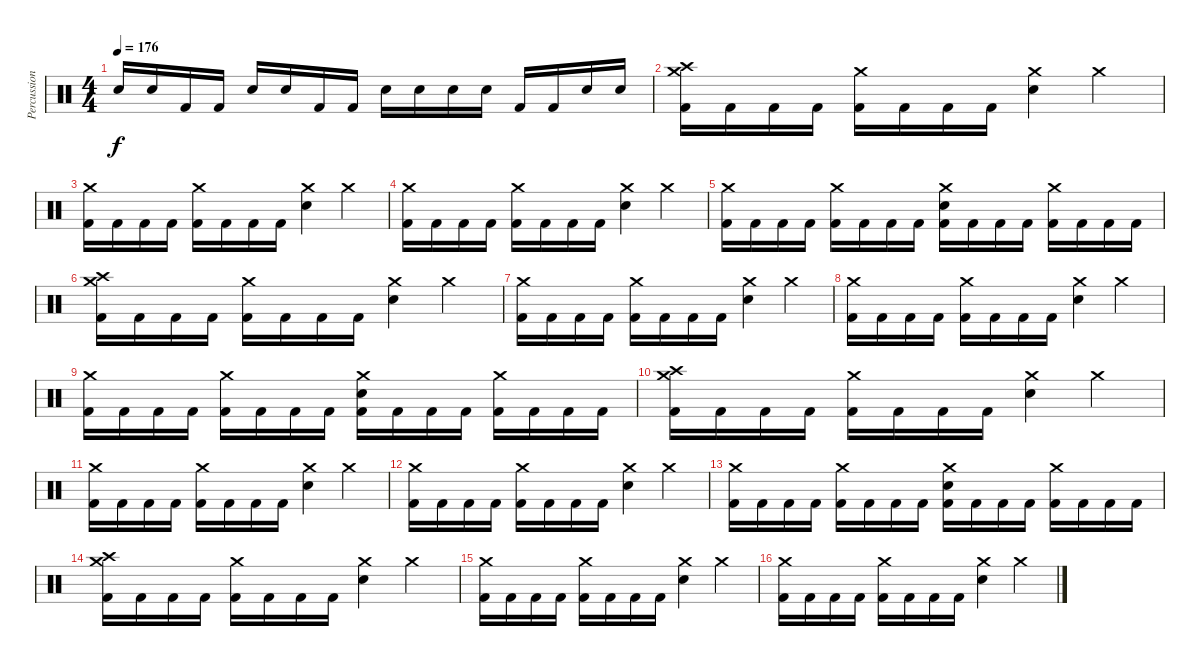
\track ("Percussion" "Percussion") {instrument percussion}
\staff {score}
\articulation defaults
\ts (4 4)
\tempo 176
\clef neutral
\ks c "Snare (hit) 2".16{dy f} "Snare (hit) 2".16 "Kick (hit) 2".16 "Kick (hit) 2".16 "Snare (hit) 2".16 "Snare (hit) 2".16 "Kick (hit) 2".16 "Kick (hit) 2".16 "Snare (hit) 2".16 "Snare (hit) 2".16 "Snare (hit) 2".16 "Snare (hit) 2".16 "Kick (hit) 2".16 "Kick (hit) 2".16 "Snare (hit) 2".16 "Snare (hit) 2".16
|
("Crash high (hit)" "Crash medium (hit)" "Kick (hit) 2").16 "Kick (hit) 2".16 "Kick (hit) 2".16 "Kick (hit) 2".16 ("Crash medium (hit)" "Kick (hit) 2").16 "Kick (hit) 2".16 "Kick (hit) 2".16 "Kick (hit) 2".16 ("Crash medium (hit)" "Snare (hit) 2").4 "Crash medium (hit)".4 |
("Crash medium (hit)" "Kick (hit) 2").16 "Kick (hit) 2".16 "Kick (hit) 2".16 "Kick (hit) 2".16 ("Crash medium (hit)" "Kick (hit) 2").16 "Kick (hit) 2".16 "Kick (hit) 2".16 "Kick (hit) 2".16 ("Crash medium (hit)" "Snare (hit) 2").4 "Crash medium (hit)".4 |
("Crash medium (hit)" "Kick (hit) 2").16 "Kick (hit) 2".16 "Kick (hit) 2".16 "Kick (hit) 2".16 ("Crash medium (hit)" "Kick (hit) 2").16 "Kick (hit) 2".16 "Kick (hit) 2".16 "Kick (hit) 2".16 ("Crash medium (hit)" "Snare (hit) 2").4 "Crash medium (hit)".4 |
("Crash medium (hit)" "Kick (hit) 2").16 "Kick (hit) 2".16 "Kick (hit) 2".16 "Kick (hit) 2".16 ("Crash medium (hit)" "Kick (hit) 2").16 "Kick (hit) 2".16 "Kick (hit) 2".16 "Kick (hit) 2".16 ("Crash medium (hit)" "Snare (hit) 2" "Kick (hit) 2").16 "Kick (hit) 2".16 "Kick (hit) 2".16 "Kick (hit) 2".16 ("Crash medium (hit)" "Kick (hit) 2").16 "Kick (hit) 2".16 "Kick (hit) 2".16 "Kick (hit) 2".16 |
("Crash high (hit)" "Crash medium (hit)" "Kick (hit) 2").16 "Kick (hit) 2".16 "Kick (hit) 2".16 "Kick (hit) 2".16 ("Crash medium (hit)" "Kick (hit) 2").16 "Kick (hit) 2".16 "Kick (hit) 2".16 "Kick (hit) 2".16 ("Crash medium (hit)" "Snare (hit) 2").4 "Crash medium (hit)".4 |
("Crash medium (hit)" "Kick (hit) 2").16 "Kick (hit) 2".16 "Kick (hit) 2".16 "Kick (hit) 2".16 ("Crash medium (hit)" "Kick (hit) 2").16 "Kick (hit) 2".16 "Kick (hit) 2".16 "Kick (hit) 2".16 ("Crash medium (hit)" "Snare (hit) 2").4 "Crash medium (hit)".4 |
("Crash medium (hit)" "Kick (hit) 2").16 "Kick (hit) 2".16 "Kick (hit) 2".16 "Kick (hit) 2".16 ("Crash medium (hit)" "Kick (hit) 2").16 "Kick (hit) 2".16 "Kick (hit) 2".16 "Kick (hit) 2".16 ("Crash medium (hit)" "Snare (hit) 2").4 "Crash medium (hit)".4 |
("Crash medium (hit)" "Kick (hit) 2").16 "Kick (hit) 2".16 "Kick (hit) 2".16 "Kick (hit) 2".16 ("Crash medium (hit)" "Kick (hit) 2").16 "Kick (hit) 2".16 "Kick (hit) 2".16 "Kick (hit) 2".16 ("Crash medium (hit)" "Snare (hit) 2" "Kick (hit) 2").16 "Kick (hit) 2".16 "Kick (hit) 2".16 "Kick (hit) 2".16 ("Crash medium (hit)" "Kick (hit) 2").16 "Kick (hit) 2".16 "Kick (hit) 2".16 "Kick (hit) 2".16 |
("Crash high (hit)" "Crash medium (hit)" "Kick (hit) 2").16 "Kick (hit) 2".16 "Kick (hit) 2".16 "Kick (hit) 2".16 ("Crash medium (hit)" "Kick (hit) 2").16 "Kick (hit) 2".16 "Kick (hit) 2".16 "Kick (hit) 2".16 ("Crash medium (hit)" "Snare (hit) 2").4 "Crash medium (hit)".4 |
("Crash medium (hit)" "Kick (hit) 2").16 "Kick (hit) 2".16 "Kick (hit) 2".16 "Kick (hit) 2".16 ("Crash medium (hit)" "Kick (hit) 2").16 "Kick (hit) 2".16 "Kick (hit) 2".16 "Kick (hit) 2".16 ("Crash medium (hit)" "Snare (hit) 2").4 "Crash medium (hit)".4 |
("Crash medium (hit)" "Kick (hit) 2").16 "Kick (hit) 2".16 "Kick (hit) 2".16 "Kick (hit) 2".16 ("Crash medium (hit)" "Kick (hit) 2").16 "Kick (hit) 2".16 "Kick (hit) 2".16 "Kick (hit) 2".16 ("Crash medium (hit)" "Snare (hit) 2").4 "Crash medium (hit)".4 |
("Crash medium (hit)" "Kick (hit) 2").16 "Kick (hit) 2".16 "Kick (hit) 2".16 "Kick (hit) 2".16 ("Crash medium (hit)" "Kick (hit) 2").16 "Kick (hit) 2".16 "Kick (hit) 2".16 "Kick (hit) 2".16 ("Crash medium (hit)" "Snare (hit) 2" "Kick (hit) 2").16 "Kick (hit) 2".16 "Kick (hit) 2".16 "Kick (hit) 2".16 ("Crash medium (hit)" "Kick (hit) 2").16 "Kick (hit) 2".16 "Kick (hit) 2".16 "Kick (hit) 2".16 |
("Crash high (hit)" "Crash medium (hit)" "Kick (hit) 2").16 "Kick (hit) 2".16 "Kick (hit) 2".16 "Kick (hit) 2".16 ("Crash medium (hit)" "Kick (hit) 2").16 "Kick (hit) 2".16 "Kick (hit) 2".16 "Kick (hit) 2".16 ("Crash medium (hit)" "Snare (hit) 2").4 "Crash medium (hit)".4 |
("Crash medium (hit)" "Kick (hit) 2").16 "Kick (hit) 2".16 "Kick (hit) 2".16 "Kick (hit) 2".16 ("Crash medium (hit)" "Kick (hit) 2").16 "Kick (hit) 2".16 "Kick (hit) 2".16 "Kick (hit) 2".16 ("Crash medium (hit)" "Snare (hit) 2").4 "Crash medium (hit)".4 |
("Crash medium (hit)" "Kick (hit) 2").16 "Kick (hit) 2".16 "Kick (hit) 2".16 "Kick (hit) 2".16 ("Crash medium (hit)" "Kick (hit) 2").16 "Kick (hit) 2".16 "Kick (hit) 2".16 "Kick (hit) 2".16 ("Crash medium (hit)" "Snare (hit) 2").4 "Crash medium (hit)".4
